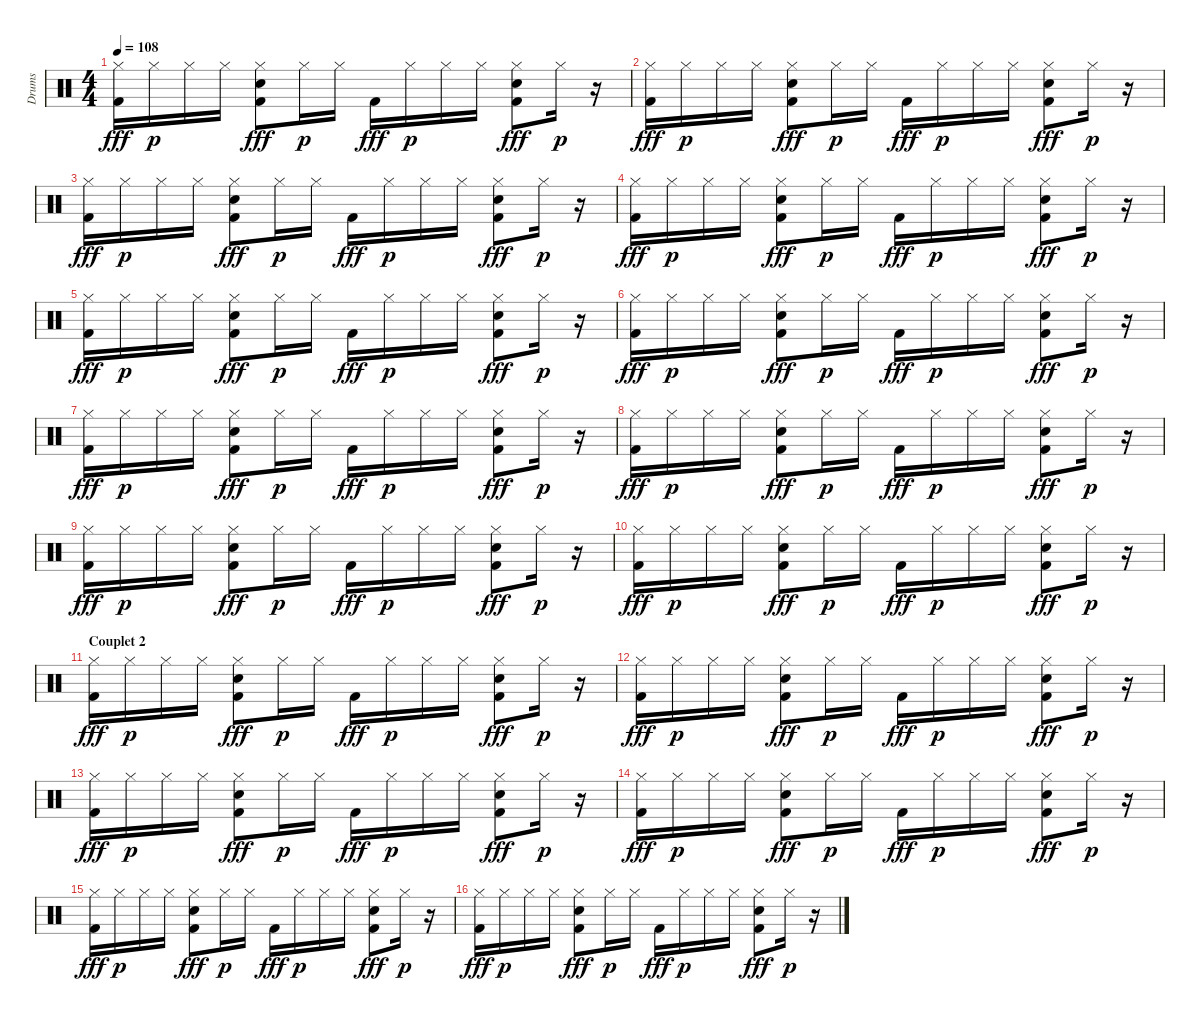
\track ("Drums" "Drums") {instrument percussion}
\staff {score}
\articulation defaults
\ts (4 4)
\tempo 108
\clef neutral
\ks c
("Hi-Hat (closed)" "Kick (hit) 2").16{dy fff} "Hi-Hat (closed)".16{dy p} "Hi-Hat (closed)".16 "Hi-Hat (closed)".16 ("Hi-Hat (closed)" "Hand Clap (hit)" "Kick (hit) 2").8{dy fff} "Hi-Hat (closed)".16{dy p} "Hi-Hat (closed)".16 "Kick (hit) 2".16{dy fff} "Hi-Hat (closed)".16{dy p} "Hi-Hat (closed)".16 "Hi-Hat (closed)".16 ("Hi-Hat (closed)" "Hand Clap (hit)" "Kick (hit) 2").8{dy fff} "Hi-Hat (closed)".16{dy p} r.16 |
("Hi-Hat (closed)" "Kick (hit) 2").16{dy fff} "Hi-Hat (closed)".16{dy p} "Hi-Hat (closed)".16 "Hi-Hat (closed)".16 ("Hi-Hat (closed)" "Hand Clap (hit)" "Kick (hit) 2").8{dy fff} "Hi-Hat (closed)".16{dy p} "Hi-Hat (closed)".16 "Kick (hit) 2".16{dy fff} "Hi-Hat (closed)".16{dy p} "Hi-Hat (closed)".16 "Hi-Hat (closed)".16 ("Hi-Hat (closed)" "Hand Clap (hit)" "Kick (hit) 2").8{dy fff} "Hi-Hat (closed)".16{dy p} r.16 |
("Hi-Hat (closed)" "Kick (hit) 2").16{dy fff} "Hi-Hat (closed)".16{dy p} "Hi-Hat (closed)".16 "Hi-Hat (closed)".16 ("Hi-Hat (closed)" "Hand Clap (hit)" "Kick (hit) 2").8{dy fff} "Hi-Hat (closed)".16{dy p} "Hi-Hat (closed)".16 "Kick (hit) 2".16{dy fff} "Hi-Hat (closed)".16{dy p} "Hi-Hat (closed)".16 "Hi-Hat (closed)".16 ("Hi-Hat (closed)" "Hand Clap (hit)" "Kick (hit) 2").8{dy fff} "Hi-Hat (closed)".16{dy p} r.16 |
("Hi-Hat (closed)" "Kick (hit) 2").16{dy fff} "Hi-Hat (closed)".16{dy p} "Hi-Hat (closed)".16 "Hi-Hat (closed)".16 ("Hi-Hat (closed)" "Hand Clap (hit)" "Kick (hit) 2").8{dy fff} "Hi-Hat (closed)".16{dy p} "Hi-Hat (closed)".16 "Kick (hit) 2".16{dy fff} "Hi-Hat (closed)".16{dy p} "Hi-Hat (closed)".16 "Hi-Hat (closed)".16 ("Hi-Hat (closed)" "Hand Clap (hit)" "Kick (hit) 2").8{dy fff} "Hi-Hat (closed)".16{dy p} r.16 |
("Hi-Hat (closed)" "Kick (hit) 2").16{dy fff} "Hi-Hat (closed)".16{dy p} "Hi-Hat (closed)".16 "Hi-Hat (closed)".16 ("Hi-Hat (closed)" "Hand Clap (hit)" "Kick (hit) 2").8{dy fff} "Hi-Hat (closed)".16{dy p} "Hi-Hat (closed)".16 "Kick (hit) 2".16{dy fff} "Hi-Hat (closed)".16{dy p} "Hi-Hat (closed)".16 "Hi-Hat (closed)".16 ("Hi-Hat (closed)" "Hand Clap (hit)" "Kick (hit) 2").8{dy fff} "Hi-Hat (closed)".16{dy p} r.16 |
("Hi-Hat (closed)" "Kick (hit) 2").16{dy fff} "Hi-Hat (closed)".16{dy p} "Hi-Hat (closed)".16 "Hi-Hat (closed)".16 ("Hi-Hat (closed)" "Hand Clap (hit)" "Kick (hit) 2").8{dy fff} "Hi-Hat (closed)".16{dy p} "Hi-Hat (closed)".16 "Kick (hit) 2".16{dy fff} "Hi-Hat (closed)".16{dy p} "Hi-Hat (closed)".16 "Hi-Hat (closed)".16 ("Hi-Hat (closed)" "Hand Clap (hit)" "Kick (hit) 2").8{dy fff} "Hi-Hat (closed)".16{dy p} r.16 |
("Hi-Hat (closed)" "Kick (hit) 2").16{dy fff} "Hi-Hat (closed)".16{dy p} "Hi-Hat (closed)".16 "Hi-Hat (closed)".16 ("Hi-Hat (closed)" "Hand Clap (hit)" "Kick (hit) 2").8{dy fff} "Hi-Hat (closed)".16{dy p} "Hi-Hat (closed)".16 "Kick (hit) 2".16{dy fff} "Hi-Hat (closed)".16{dy p} "Hi-Hat (closed)".16 "Hi-Hat (closed)".16 ("Hi-Hat (closed)" "Hand Clap (hit)" "Kick (hit) 2").8{dy fff} "Hi-Hat (closed)".16{dy p} r.16 |
("Hi-Hat (closed)" "Kick (hit) 2").16{dy fff} "Hi-Hat (closed)".16{dy p} "Hi-Hat (closed)".16 "Hi-Hat (closed)".16 ("Hi-Hat (closed)" "Hand Clap (hit)" "Kick (hit) 2").8{dy fff} "Hi-Hat (closed)".16{dy p} "Hi-Hat (closed)".16 "Kick (hit) 2".16{dy fff} "Hi-Hat (closed)".16{dy p} "Hi-Hat (closed)".16 "Hi-Hat (closed)".16 ("Hi-Hat (closed)" "Hand Clap (hit)" "Kick (hit) 2").8{dy fff} "Hi-Hat (closed)".16{dy p} r.16 |
("Hi-Hat (closed)" "Kick (hit) 2").16{dy fff} "Hi-Hat (closed)".16{dy p} "Hi-Hat (closed)".16 "Hi-Hat (closed)".16 ("Hi-Hat (closed)" "Hand Clap (hit)" "Kick (hit) 2").8{dy fff} "Hi-Hat (closed)".16{dy p} "Hi-Hat (closed)".16 "Kick (hit) 2".16{dy fff} "Hi-Hat (closed)".16{dy p} "Hi-Hat (closed)".16 "Hi-Hat (closed)".16 ("Hi-Hat (closed)" "Hand Clap (hit)" "Kick (hit) 2").8{dy fff} "Hi-Hat (closed)".16{dy p} r.16 |
("Hi-Hat (closed)" "Kick (hit) 2").16{dy fff} "Hi-Hat (closed)".16{dy p} "Hi-Hat (closed)".16 "Hi-Hat (closed)".16 ("Hi-Hat (closed)" "Hand Clap (hit)" "Kick (hit) 2").8{dy fff} "Hi-Hat (closed)".16{dy p} "Hi-Hat (closed)".16 "Kick (hit) 2".16{dy fff} "Hi-Hat (closed)".16{dy p} "Hi-Hat (closed)".16 "Hi-Hat (closed)".16 ("Hi-Hat (closed)" "Hand Clap (hit)" "Kick (hit) 2").8{dy fff} "Hi-Hat (closed)".16{dy p} r.16 |
\section ("" "Couplet 2")
("Hi-Hat (closed)" "Kick (hit) 2").16{dy fff} "Hi-Hat (closed)".16{dy p} "Hi-Hat (closed)".16 "Hi-Hat (closed)".16 ("Hi-Hat (closed)" "Hand Clap (hit)" "Kick (hit) 2").8{dy fff} "Hi-Hat (closed)".16{dy p} "Hi-Hat (closed)".16 "Kick (hit) 2".16{dy fff} "Hi-Hat (closed)".16{dy p} "Hi-Hat (closed)".16 "Hi-Hat (closed)".16 ("Hi-Hat (closed)" "Hand Clap (hit)" "Kick (hit) 2").8{dy fff} "Hi-Hat (closed)".16{dy p} r.16 |
("Hi-Hat (closed)" "Kick (hit) 2").16{dy fff} "Hi-Hat (closed)".16{dy p} "Hi-Hat (closed)".16 "Hi-Hat (closed)".16 ("Hi-Hat (closed)" "Hand Clap (hit)" "Kick (hit) 2").8{dy fff} "Hi-Hat (closed)".16{dy p} "Hi-Hat (closed)".16 "Kick (hit) 2".16{dy fff} "Hi-Hat (closed)".16{dy p} "Hi-Hat (closed)".16 "Hi-Hat (closed)".16 ("Hi-Hat (closed)" "Hand Clap (hit)" "Kick (hit) 2").8{dy fff} "Hi-Hat (closed)".16{dy p} r.16 |
("Hi-Hat (closed)" "Kick (hit) 2").16{dy fff} "Hi-Hat (closed)".16{dy p} "Hi-Hat (closed)".16 "Hi-Hat (closed)".16 ("Hi-Hat (closed)" "Hand Clap (hit)" "Kick (hit) 2").8{dy fff} "Hi-Hat (closed)".16{dy p} "Hi-Hat (closed)".16 "Kick (hit) 2".16{dy fff} "Hi-Hat (closed)".16{dy p} "Hi-Hat (closed)".16 "Hi-Hat (closed)".16 ("Hi-Hat (closed)" "Hand Clap (hit)" "Kick (hit) 2").8{dy fff} "Hi-Hat (closed)".16{dy p} r.16 |
("Hi-Hat (closed)" "Kick (hit) 2").16{dy fff} "Hi-Hat (closed)".16{dy p} "Hi-Hat (closed)".16 "Hi-Hat (closed)".16 ("Hi-Hat (closed)" "Hand Clap (hit)" "Kick (hit) 2").8{dy fff} "Hi-Hat (closed)".16{dy p} "Hi-Hat (closed)".16 "Kick (hit) 2".16{dy fff} "Hi-Hat (closed)".16{dy p} "Hi-Hat (closed)".16 "Hi-Hat (closed)".16 ("Hi-Hat (closed)" "Hand Clap (hit)" "Kick (hit) 2").8{dy fff} "Hi-Hat (closed)".16{dy p} r.16 |
("Hi-Hat (closed)" "Kick (hit) 2").16{dy fff} "Hi-Hat (closed)".16{dy p} "Hi-Hat (closed)".16 "Hi-Hat (closed)".16 ("Hi-Hat (closed)" "Hand Clap (hit)" "Kick (hit) 2").8{dy fff} "Hi-Hat (closed)".16{dy p} "Hi-Hat (closed)".16 "Kick (hit) 2".16{dy fff} "Hi-Hat (closed)".16{dy p} "Hi-Hat (closed)".16 "Hi-Hat (closed)".16 ("Hi-Hat (closed)" "Hand Clap (hit)" "Kick (hit) 2").8{dy fff} "Hi-Hat (closed)".16{dy p} r.16 |
("Hi-Hat (closed)" "Kick (hit) 2").16{dy fff} "Hi-Hat (closed)".16{dy p} "Hi-Hat (closed)".16 "Hi-Hat (closed)".16 ("Hi-Hat (closed)" "Hand Clap (hit)" "Kick (hit) 2").8{dy fff} "Hi-Hat (closed)".16{dy p} "Hi-Hat (closed)".16 "Kick (hit) 2".16{dy fff} "Hi-Hat (closed)".16{dy p} "Hi-Hat (closed)".16 "Hi-Hat (closed)".16 ("Hi-Hat (closed)" "Hand Clap (hit)" "Kick (hit) 2").8{dy fff} "Hi-Hat (closed)".16{dy p} r.16
